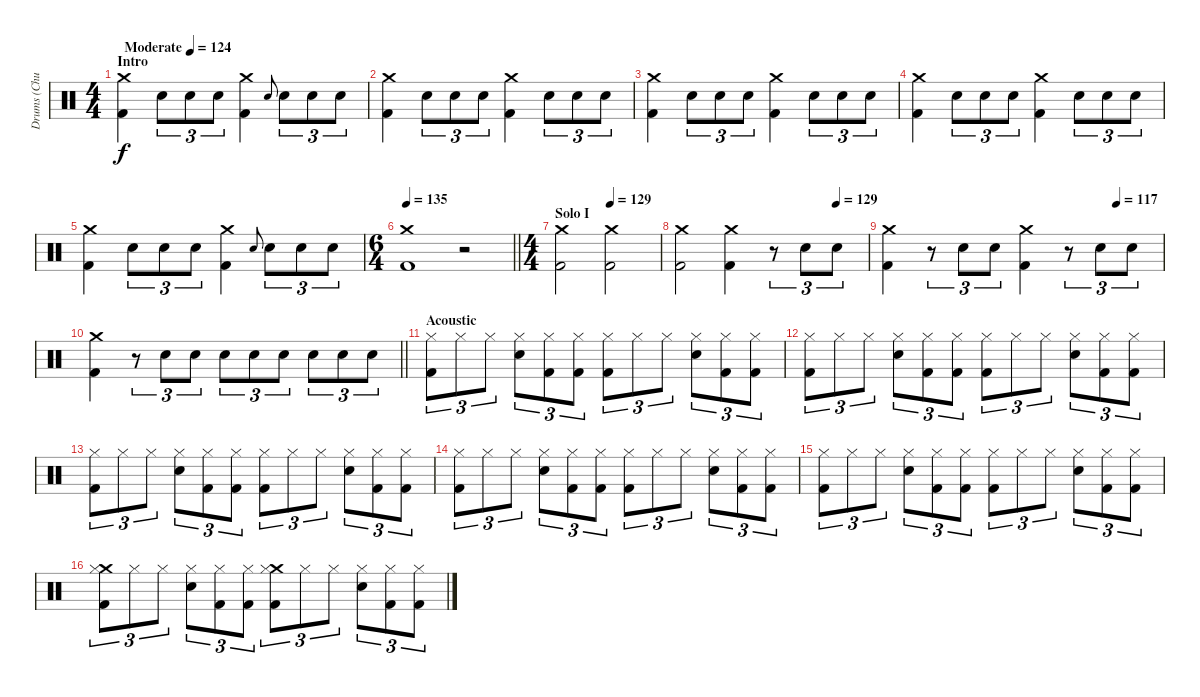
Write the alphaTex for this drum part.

\track ("Drums (Chuck Behler)" "Drums (Chu") {instrument percussion}
\staff {score}
\articulation defaults
\ts (4 4)
\section ("" "Intro")
\tempo (124 "Moderate")
\clef neutral
\ks c
("Crash medium (hit)" "Kick (hit) 2").4{dy f} "Snare (hit) 2".8{tu (3 2)} "Snare (hit) 2".8{tu (3 2)} "Snare (hit) 2".8{tu (3 2)} ("Crash medium (hit)" "Kick (hit) 2").4 "Snare (hit) 2".8{gr onbeat} "Snare (hit) 2".8{tu (3 2)} "Snare (hit) 2".8{tu (3 2)} "Snare (hit) 2".8{tu (3 2)} |
("Crash medium (hit)" "Kick (hit) 2").4 "Snare (hit) 2".8{tu (3 2)} "Snare (hit) 2".8{tu (3 2)} "Snare (hit) 2".8{tu (3 2)} ("Crash medium (hit)" "Kick (hit) 2").4 "Snare (hit) 2".8{tu (3 2)} "Snare (hit) 2".8{tu (3 2)} "Snare (hit) 2".8{tu (3 2)} |
("Crash medium (hit)" "Kick (hit) 2").4 "Snare (hit) 2".8{tu (3 2)} "Snare (hit) 2".8{tu (3 2)} "Snare (hit) 2".8{tu (3 2)} ("Crash medium (hit)" "Kick (hit) 2").4 "Snare (hit) 2".8{tu (3 2)} "Snare (hit) 2".8{tu (3 2)} "Snare (hit) 2".8{tu (3 2)} |
("Crash medium (hit)" "Kick (hit) 2").4 "Snare (hit) 2".8{tu (3 2)} "Snare (hit) 2".8{tu (3 2)} "Snare (hit) 2".8{tu (3 2)} ("Crash medium (hit)" "Kick (hit) 2").4 "Snare (hit) 2".8{tu (3 2)} "Snare (hit) 2".8{tu (3 2)} "Snare (hit) 2".8{tu (3 2)} |
("Crash medium (hit)" "Kick (hit) 2").4 "Snare (hit) 2".8{tu (3 2)} "Snare (hit) 2".8{tu (3 2)} "Snare (hit) 2".8{tu (3 2)} ("Crash medium (hit)" "Kick (hit) 2").4 "Snare (hit) 2".8{gr onbeat} "Snare (hit) 2".8{tu (3 2)} "Snare (hit) 2".8{tu (3 2)} "Snare (hit) 2".8{tu (3 2)} |
\ts (6 4)
\tempo 135
\barLineRight lightlight
("Crash medium (hit)" "Kick (hit) 2").1 r.2 |
\ts (4 4)
\section ("" "Solo I")
\tempo (129 0.5)
("Crash medium (hit)" "Kick (hit) 2").2 ("Crash medium (hit)" "Kick (hit) 2").2 |
\tempo (129 0.8333333333333334)
("Crash medium (hit)" "Kick (hit) 2").2 ("Crash medium (hit)" "Kick (hit) 2").4 r.8{tu (3 2)} "Snare (hit) 2".8{tu (3 2)} "Snare (hit) 2".8{tu (3 2)} |
\tempo (117 0.8333333333333334)
("Crash medium (hit)" "Kick (hit) 2").4 r.8{tu (3 2)} "Snare (hit) 2".8{tu (3 2)} "Snare (hit) 2".8{tu (3 2)} ("Crash medium (hit)" "Kick (hit) 2").4 r.8{tu (3 2)} "Snare (hit) 2".8{tu (3 2)} "Snare (hit) 2".8{tu (3 2)} |
\barLineRight lightlight
("Crash medium (hit)" "Kick (hit) 2").4 r.8{tu (3 2)} "Snare (hit) 2".8{tu (3 2)} "Snare (hit) 2".8{tu (3 2)} "Snare (hit) 2".8{tu (3 2)} "Snare (hit) 2".8{tu (3 2)} "Snare (hit) 2".8{tu (3 2)} "Snare (hit) 2".8{tu (3 2)} "Snare (hit) 2".8{tu (3 2)} "Snare (hit) 2".8{tu (3 2)} |
\section ("" "Acoustic")
("Hi-Hat (closed)" "Kick (hit) 2").8{tu (3 2)} "Hi-Hat (closed)".8{tu (3 2)} "Hi-Hat (closed)".8{tu (3 2)} ("Hi-Hat (closed)" "Snare (hit) 2").8{tu (3 2)} ("Hi-Hat (closed)" "Kick (hit) 2").8{tu (3 2)} ("Hi-Hat (closed)" "Kick (hit) 2").8{tu (3 2)} ("Hi-Hat (closed)" "Kick (hit) 2").8{tu (3 2)} "Hi-Hat (closed)".8{tu (3 2)} "Hi-Hat (closed)".8{tu (3 2)} ("Hi-Hat (closed)" "Snare (hit) 2").8{tu (3 2)} ("Hi-Hat (closed)" "Kick (hit) 2").8{tu (3 2)} ("Hi-Hat (closed)" "Kick (hit) 2").8{tu (3 2)} |
("Hi-Hat (closed)" "Kick (hit) 2").8{tu (3 2)} "Hi-Hat (closed)".8{tu (3 2)} "Hi-Hat (closed)".8{tu (3 2)} ("Hi-Hat (closed)" "Snare (hit) 2").8{tu (3 2)} ("Hi-Hat (closed)" "Kick (hit) 2").8{tu (3 2)} ("Hi-Hat (closed)" "Kick (hit) 2").8{tu (3 2)} ("Hi-Hat (closed)" "Kick (hit) 2").8{tu (3 2)} "Hi-Hat (closed)".8{tu (3 2)} "Hi-Hat (closed)".8{tu (3 2)} ("Hi-Hat (closed)" "Snare (hit) 2").8{tu (3 2)} ("Hi-Hat (closed)" "Kick (hit) 2").8{tu (3 2)} ("Hi-Hat (closed)" "Kick (hit) 2").8{tu (3 2)} |
("Hi-Hat (closed)" "Kick (hit) 2").8{tu (3 2)} "Hi-Hat (closed)".8{tu (3 2)} "Hi-Hat (closed)".8{tu (3 2)} ("Hi-Hat (closed)" "Snare (hit) 2").8{tu (3 2)} ("Hi-Hat (closed)" "Kick (hit) 2").8{tu (3 2)} ("Hi-Hat (closed)" "Kick (hit) 2").8{tu (3 2)} ("Hi-Hat (closed)" "Kick (hit) 2").8{tu (3 2)} "Hi-Hat (closed)".8{tu (3 2)} "Hi-Hat (closed)".8{tu (3 2)} ("Hi-Hat (closed)" "Snare (hit) 2").8{tu (3 2)} ("Hi-Hat (closed)" "Kick (hit) 2").8{tu (3 2)} ("Hi-Hat (closed)" "Kick (hit) 2").8{tu (3 2)} |
("Hi-Hat (closed)" "Kick (hit) 2").8{tu (3 2)} "Hi-Hat (closed)".8{tu (3 2)} "Hi-Hat (closed)".8{tu (3 2)} ("Hi-Hat (closed)" "Snare (hit) 2").8{tu (3 2)} ("Hi-Hat (closed)" "Kick (hit) 2").8{tu (3 2)} ("Hi-Hat (closed)" "Kick (hit) 2").8{tu (3 2)} ("Hi-Hat (closed)" "Kick (hit) 2").8{tu (3 2)} "Hi-Hat (closed)".8{tu (3 2)} "Hi-Hat (closed)".8{tu (3 2)} ("Hi-Hat (closed)" "Snare (hit) 2").8{tu (3 2)} ("Hi-Hat (closed)" "Kick (hit) 2").8{tu (3 2)} ("Hi-Hat (closed)" "Kick (hit) 2").8{tu (3 2)} |
("Hi-Hat (closed)" "Kick (hit) 2").8{tu (3 2)} "Hi-Hat (closed)".8{tu (3 2)} "Hi-Hat (closed)".8{tu (3 2)} ("Hi-Hat (closed)" "Snare (hit) 2").8{tu (3 2)} ("Hi-Hat (closed)" "Kick (hit) 2").8{tu (3 2)} ("Hi-Hat (closed)" "Kick (hit) 2").8{tu (3 2)} ("Hi-Hat (closed)" "Kick (hit) 2").8{tu (3 2)} "Hi-Hat (closed)".8{tu (3 2)} "Hi-Hat (closed)".8{tu (3 2)} ("Hi-Hat (closed)" "Snare (hit) 2").8{tu (3 2)} ("Hi-Hat (closed)" "Kick (hit) 2").8{tu (3 2)} ("Hi-Hat (closed)" "Kick (hit) 2").8{tu (3 2)} |
("Crash medium (hit)" "Hi-Hat (closed)" "Kick (hit) 2").8{tu (3 2)} "Hi-Hat (closed)".8{tu (3 2)} "Hi-Hat (closed)".8{tu (3 2)} ("Hi-Hat (closed)" "Snare (hit) 2").8{tu (3 2)} ("Hi-Hat (closed)" "Kick (hit) 2").8{tu (3 2)} ("Hi-Hat (closed)" "Kick (hit) 2").8{tu (3 2)} ("Crash medium (hit)" "Hi-Hat (closed)" "Kick (hit) 2").8{tu (3 2)} "Hi-Hat (closed)".8{tu (3 2)} "Hi-Hat (closed)".8{tu (3 2)} ("Hi-Hat (closed)" "Snare (hit) 2").8{tu (3 2)} ("Hi-Hat (closed)" "Kick (hit) 2").8{tu (3 2)} ("Hi-Hat (closed)" "Kick (hit) 2").8{tu (3 2)}
